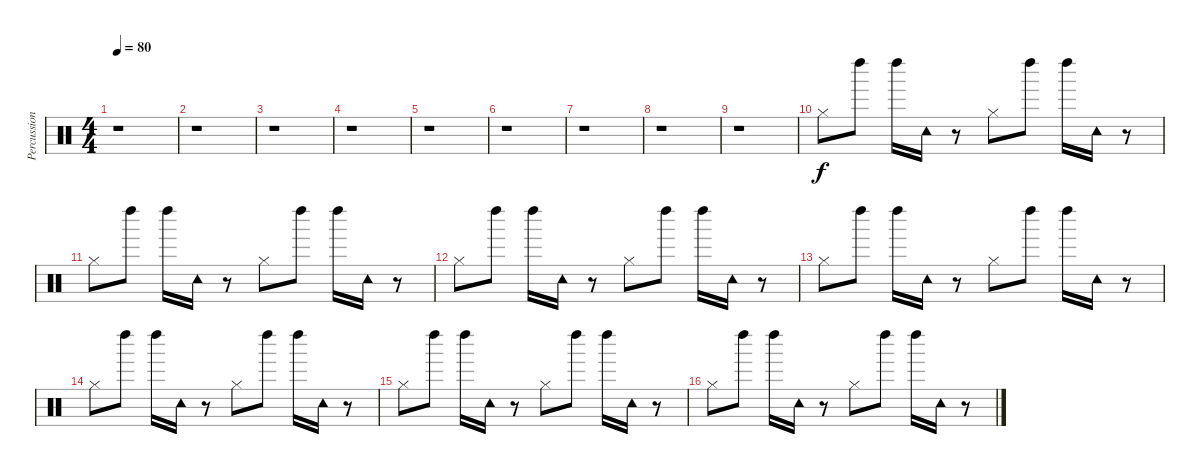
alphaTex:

\track ("Percussion" "Percussion") {instrument percussion}
\staff {score}
\articulation defaults
\ts (4 4)
\tempo 80
\clef neutral
\ks c
r.1{dy f} |
r.1 |
r.1 |
r.1 |
r.1 |
r.1 |
r.1 |
r.1 |
r.1 |
"Hi-Hat (closed)".8 "Left Maraca (hit)".8 "Left Maraca (hit)".16 "Tambourine (hit)".16 r.8 "Hi-Hat (closed)".8 "Left Maraca (hit)".8 "Left Maraca (hit)".16 "Tambourine (hit)".16 r.8 |
"Hi-Hat (closed)".8 "Left Maraca (hit)".8 "Left Maraca (hit)".16 "Tambourine (hit)".16 r.8 "Hi-Hat (closed)".8 "Left Maraca (hit)".8 "Left Maraca (hit)".16 "Tambourine (hit)".16 r.8 |
"Hi-Hat (closed)".8 "Left Maraca (hit)".8 "Left Maraca (hit)".16 "Tambourine (hit)".16 r.8 "Hi-Hat (closed)".8 "Left Maraca (hit)".8 "Left Maraca (hit)".16 "Tambourine (hit)".16 r.8 |
"Hi-Hat (closed)".8 "Left Maraca (hit)".8 "Left Maraca (hit)".16 "Tambourine (hit)".16 r.8 "Hi-Hat (closed)".8 "Left Maraca (hit)".8 "Left Maraca (hit)".16 "Tambourine (hit)".16 r.8 |
"Hi-Hat (closed)".8 "Left Maraca (hit)".8 "Left Maraca (hit)".16 "Tambourine (hit)".16 r.8 "Hi-Hat (closed)".8 "Left Maraca (hit)".8 "Left Maraca (hit)".16 "Tambourine (hit)".16 r.8 |
"Hi-Hat (closed)".8 "Left Maraca (hit)".8 "Left Maraca (hit)".16 "Tambourine (hit)".16 r.8 "Hi-Hat (closed)".8 "Left Maraca (hit)".8 "Left Maraca (hit)".16 "Tambourine (hit)".16 r.8 |
"Hi-Hat (closed)".8 "Left Maraca (hit)".8 "Left Maraca (hit)".16 "Tambourine (hit)".16 r.8 "Hi-Hat (closed)".8 "Left Maraca (hit)".8 "Left Maraca (hit)".16 "Tambourine (hit)".16 r.8
